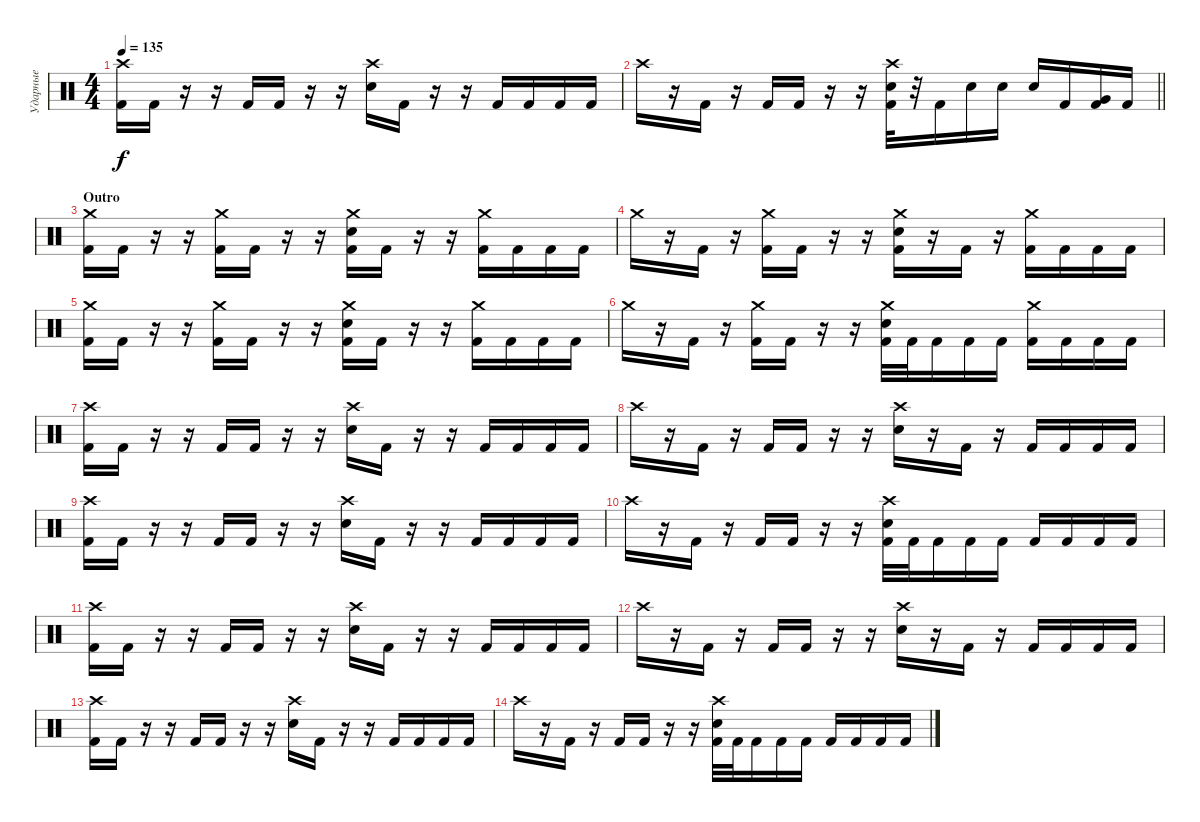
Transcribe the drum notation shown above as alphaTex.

\track ("Ударные" "Ударные") {instrument percussion}
\staff {score}
\articulation defaults
\ts (4 4)
\tempo 135
\clef neutral
\ks c
("Crash high (hit)" "Kick (hit) 2").16{dy f} "Kick (hit) 2".16 r.16 r.16 "Kick (hit) 2".16 "Kick (hit) 2".16 r.16 r.16 ("Crash high (hit)" "Electric Snare (hit)").16 "Kick (hit) 2".16 r.16 r.16 "Kick (hit) 2".16 "Kick (hit) 2".16 "Kick (hit) 2".16 "Kick (hit) 2".16 |
\barLineRight lightlight "Crash high (hit)".16
r.16 "Kick (hit) 2".16 r.16 "Kick (hit) 2".16 "Kick (hit) 2".16 r.16 r.16 ("Crash high (hit)" "Electric Snare (hit)" "Kick (hit) 2").32 r.32 "Kick (hit) 2".16 "Electric Snare (hit)".16 "Electric Snare (hit)".16 "Electric Snare (hit)".16 "Kick (hit) 2".16 ("Very Low Tom (hit)" "Kick (hit) 2").16 "Kick (hit) 2".16 |
\section ("" "Outro")
("Crash medium (hit)" "Kick (hit) 2").16 "Kick (hit) 2".16 r.16 r.16 ("Crash medium (hit)" "Kick (hit) 2").16 "Kick (hit) 2".16 r.16 r.16 ("Crash medium (hit)" "Electric Snare (hit)" "Kick (hit) 2").16 "Kick (hit) 2".16 r.16 r.16 ("Crash medium (hit)" "Kick (hit) 2").16 "Kick (hit) 2".16 "Kick (hit) 2".16 "Kick (hit) 2".16 |
"Crash medium (hit)".16 r.16 "Kick (hit) 2".16 r.16 ("Crash medium (hit)" "Kick (hit) 2").16 "Kick (hit) 2".16 r.16 r.16 ("Crash medium (hit)" "Electric Snare (hit)" "Kick (hit) 2").16 r.16 "Kick (hit) 2".16 r.16 ("Crash medium (hit)" "Kick (hit) 2").16 "Kick (hit) 2".16 "Kick (hit) 2".16 "Kick (hit) 2".16 |
("Crash medium (hit)" "Kick (hit) 2").16 "Kick (hit) 2".16 r.16 r.16 ("Crash medium (hit)" "Kick (hit) 2").16 "Kick (hit) 2".16 r.16 r.16 ("Crash medium (hit)" "Electric Snare (hit)" "Kick (hit) 2").16 "Kick (hit) 2".16 r.16 r.16 ("Crash medium (hit)" "Kick (hit) 2").16 "Kick (hit) 2".16 "Kick (hit) 2".16 "Kick (hit) 2".16 |
"Crash medium (hit)".16 r.16 "Kick (hit) 2".16 r.16 ("Crash medium (hit)" "Kick (hit) 2").16 "Kick (hit) 2".16 r.16 r.16 ("Crash medium (hit)" "Electric Snare (hit)" "Kick (hit) 2").32 "Kick (hit) 2".32 "Kick (hit) 2".16 "Kick (hit) 2".16 "Kick (hit) 2".16 ("Crash medium (hit)" "Kick (hit) 2").16 "Kick (hit) 2".16 "Kick (hit) 2".16 "Kick (hit) 2".16 |
("Crash high (hit)" "Kick (hit) 2").16 "Kick (hit) 2".16 r.16 r.16 "Kick (hit) 2".16 "Kick (hit) 2".16 r.16 r.16 ("Crash high (hit)" "Electric Snare (hit)").16 "Kick (hit) 2".16 r.16 r.16 "Kick (hit) 2".16 "Kick (hit) 2".16 "Kick (hit) 2".16 "Kick (hit) 2".16 |
"Crash high (hit)".16 r.16 "Kick (hit) 2".16 r.16 "Kick (hit) 2".16 "Kick (hit) 2".16 r.16 r.16 ("Crash high (hit)" "Electric Snare (hit)").16 r.16 "Kick (hit) 2".16 r.16 "Kick (hit) 2".16 "Kick (hit) 2".16 "Kick (hit) 2".16 "Kick (hit) 2".16 |
("Crash high (hit)" "Kick (hit) 2").16 "Kick (hit) 2".16 r.16 r.16 "Kick (hit) 2".16 "Kick (hit) 2".16 r.16 r.16 ("Crash high (hit)" "Electric Snare (hit)").16 "Kick (hit) 2".16 r.16 r.16 "Kick (hit) 2".16 "Kick (hit) 2".16 "Kick (hit) 2".16 "Kick (hit) 2".16 |
"Crash high (hit)".16 r.16 "Kick (hit) 2".16 r.16 "Kick (hit) 2".16 "Kick (hit) 2".16 r.16 r.16 ("Crash high (hit)" "Electric Snare (hit)" "Kick (hit) 2").32 "Kick (hit) 2".32 "Kick (hit) 2".16 "Kick (hit) 2".16 "Kick (hit) 2".16 "Kick (hit) 2".16 "Kick (hit) 2".16 "Kick (hit) 2".16 "Kick (hit) 2".16 |
("Crash high (hit)" "Kick (hit) 2").16 "Kick (hit) 2".16 r.16 r.16 "Kick (hit) 2".16 "Kick (hit) 2".16 r.16 r.16 ("Crash high (hit)" "Electric Snare (hit)").16 "Kick (hit) 2".16 r.16 r.16 "Kick (hit) 2".16 "Kick (hit) 2".16 "Kick (hit) 2".16 "Kick (hit) 2".16 |
"Crash high (hit)".16 r.16 "Kick (hit) 2".16 r.16 "Kick (hit) 2".16 "Kick (hit) 2".16 r.16 r.16 ("Crash high (hit)" "Electric Snare (hit)").16 r.16 "Kick (hit) 2".16 r.16 "Kick (hit) 2".16 "Kick (hit) 2".16 "Kick (hit) 2".16 "Kick (hit) 2".16 |
("Crash high (hit)" "Kick (hit) 2").16 "Kick (hit) 2".16 r.16 r.16 "Kick (hit) 2".16 "Kick (hit) 2".16 r.16 r.16 ("Crash high (hit)" "Electric Snare (hit)").16 "Kick (hit) 2".16 r.16 r.16 "Kick (hit) 2".16 "Kick (hit) 2".16 "Kick (hit) 2".16 "Kick (hit) 2".16 |
"Crash high (hit)".16 r.16 "Kick (hit) 2".16 r.16 "Kick (hit) 2".16 "Kick (hit) 2".16 r.16 r.16 ("Crash high (hit)" "Electric Snare (hit)" "Kick (hit) 2").32 "Kick (hit) 2".32 "Kick (hit) 2".16 "Kick (hit) 2".16 "Kick (hit) 2".16 "Kick (hit) 2".16 "Kick (hit) 2".16 "Kick (hit) 2".16 "Kick (hit) 2".16
